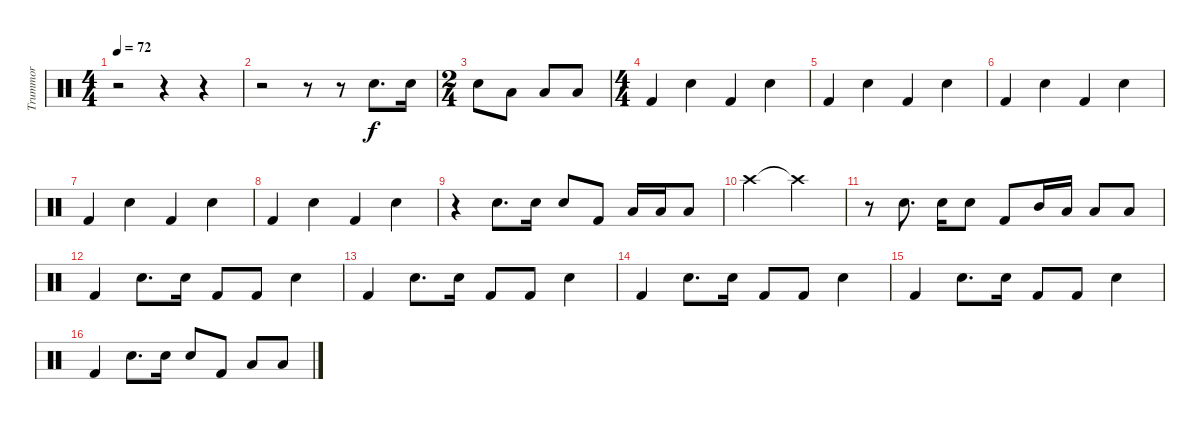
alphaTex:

\track ("Trummor" "Trummor") {instrument percussion}
\staff {score}
\articulation defaults
\ts (4 4)
\tempo 72
\clef neutral
\ks c
r.2{dy f} r.4 r.4 |
r.2 r.8 r.8 "Snare (hit) 2".8{d} "Snare (hit) 2".16 |
\ts (2 4)
"Snare (hit) 2".8 "Low Floor Tom (hit)".8 "Low Floor Tom (hit)".8 "Low Floor Tom (hit)".8 |
\ts (4 4)
"Kick (hit) 2".4 "Snare (hit) 2".4 "Kick (hit) 2".4 "Snare (hit) 2".4 |
"Kick (hit) 2".4 "Snare (hit) 2".4 "Kick (hit) 2".4 "Snare (hit) 2".4 |
"Kick (hit) 2".4 "Snare (hit) 2".4 "Kick (hit) 2".4 "Snare (hit) 2".4 |
"Kick (hit) 2".4 "Snare (hit) 2".4 "Kick (hit) 2".4 "Snare (hit) 2".4 |
"Kick (hit) 2".4 "Snare (hit) 2".4 "Kick (hit) 2".4 "Snare (hit) 2".4 |
r.4 "Snare (hit) 2".8{d} "Snare (hit) 2".16 "Snare (hit) 2".8 "Kick (hit) 2".8 "Low Floor Tom (hit)".16 "Low Floor Tom (hit)".16 "Low Floor Tom (hit)".8 |
"Crash high (hit)".2 "Crash high (hit)"{t}.2 |
r.8 "Snare (hit) 2".8{d} "Snare (hit) 2".16 "Snare (hit) 2".8 "Kick (hit) 2".8 "Mid Tom (hit)".16 "Low Floor Tom (hit)".16 "Low Floor Tom (hit)".8 "Low Floor Tom (hit)".8 |
"Kick (hit) 2".4 "Snare (hit) 2".8{d} "Snare (hit) 2".16 "Kick (hit) 2".8 "Kick (hit) 2".8 "Snare (hit) 2".4 |
"Kick (hit) 2".4 "Snare (hit) 2".8{d} "Snare (hit) 2".16 "Kick (hit) 2".8 "Kick (hit) 2".8 "Snare (hit) 2".4 |
"Kick (hit) 2".4 "Snare (hit) 2".8{d} "Snare (hit) 2".16 "Kick (hit) 2".8 "Kick (hit) 2".8 "Snare (hit) 2".4 |
"Kick (hit) 2".4 "Snare (hit) 2".8{d} "Snare (hit) 2".16 "Kick (hit) 2".8 "Kick (hit) 2".8 "Snare (hit) 2".4 |
"Kick (hit) 2".4 "Snare (hit) 2".8{d} "Snare (hit) 2".16 "Snare (hit) 2".8 "Kick (hit) 2".8 "Low Floor Tom (hit)".8 "Low Floor Tom (hit)".8
